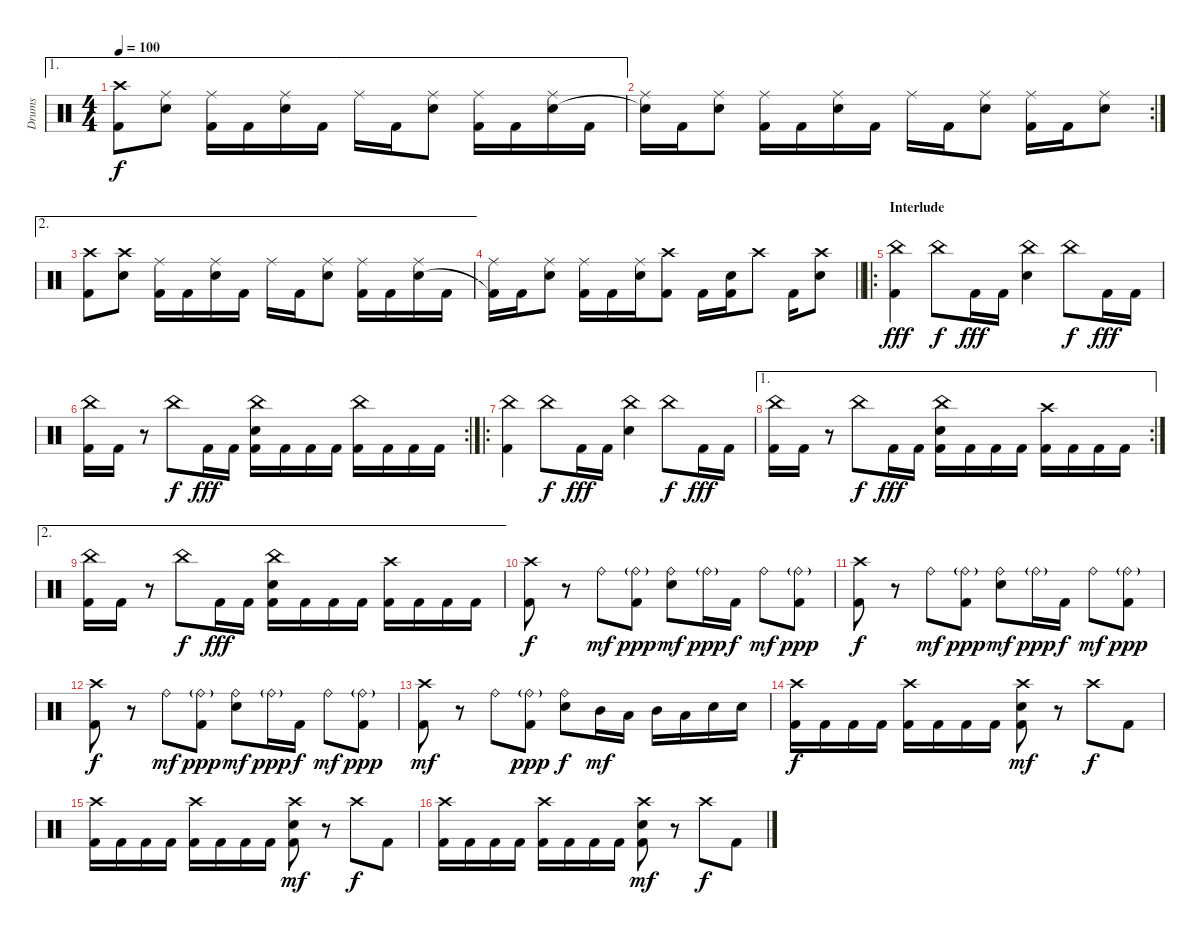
\track ("Drums" "Drums") {instrument percussion}
\staff {score}
\articulation defaults
\ae 1
\ts (4 4)
\tempo 100
\clef neutral
\ks c
("Crash high (hit)" "Kick (hit) 2").8{dy f} ("Ride (middle)" "Snare (hit) 2").8 ("Ride (middle)" "Kick (hit) 2").16 "Kick (hit) 2".16 ("Ride (middle)" "Snare (hit) 2").16 "Kick (hit) 2".16 "Ride (middle)".16 "Kick (hit) 2".16 ("Ride (middle)" "Snare (hit) 2").8 ("Ride (middle)" "Kick (hit) 2").16 "Kick (hit) 2".16 ("Ride (middle)" "Snare (hit) 2").16 "Kick (hit) 2".16 |
\rc 2
("Ride (middle)" "Snare (hit)"{t}).16 "Kick (hit) 2".16 ("Ride (middle)" "Snare (hit) 2").8 ("Ride (middle)" "Kick (hit) 2").16 "Kick (hit) 2".16 ("Ride (middle)" "Snare (hit) 2").16 "Kick (hit) 2".16 "Ride (middle)".16 "Kick (hit) 2".16 ("Ride (middle)" "Snare (hit) 2").8 ("Ride (middle)" "Kick (hit) 2").16 "Kick (hit) 2".16 ("Ride (middle)" "Snare (hit) 2").8 |
\ae 2
("Crash high (hit)" "Kick (hit) 2").8 ("Crash high (hit)" "Snare (hit) 2").8 ("Ride (middle)" "Kick (hit) 2").16 "Kick (hit) 2".16 ("Ride (middle)" "Snare (hit) 2").16 "Kick (hit) 2".16 "Ride (middle)".16 "Kick (hit) 2".16 ("Ride (middle)" "Snare (hit) 2").8 ("Ride (middle)" "Kick (hit) 2").16 "Kick (hit) 2".16 ("Ride (middle)" "Snare (hit) 2").16 "Kick (hit) 2".16 |
\barLineRight lightlight
("Ride (middle)" "Kick (hit) 2"{t}).16 "Kick (hit) 2".16 ("Ride (middle)" "Snare (hit) 2").8 ("Ride (middle)" "Kick (hit) 2").16 "Kick (hit) 2".16 ("Ride (middle)" "Snare (hit) 2").16 ("Crash high (hit)" "Kick (hit) 2").8 "Kick (hit) 2".16 ("Snare (hit) 2" "Kick (hit) 2").16 "Crash high (hit)".8 "Kick (hit) 2".16 ("Crash high (hit)" "Snare (hit) 2").8 |
\ro
\section ("" "Interlude")
("China (hit)" "Kick (hit) 2").4{dy fff} "China (hit)".8{dy f} "Kick (hit) 2".16{dy fff} "Kick (hit) 2".16 ("China (hit)" "Snare (hit) 2").4 "China (hit)".8{dy f} "Kick (hit) 2".16{dy fff} "Kick (hit) 2".16 |
\rc 2
("China (hit)" "Kick (hit) 2").16 "Kick (hit) 2".16 r.8 "China (hit)".8{dy f} "Kick (hit) 2".16{dy fff} "Kick (hit) 2".16 ("China (hit)" "Snare (hit) 2" "Kick (hit) 2").16 "Kick (hit) 2".16 "Kick (hit) 2".16 "Kick (hit) 2".16 ("China (hit)" "Kick (hit) 2").16 "Kick (hit) 2".16 "Kick (hit) 2".16 "Kick (hit) 2".16 |
\ro
("China (hit)" "Kick (hit) 2").4 "China (hit)".8{dy f} "Kick (hit) 2".16{dy fff} "Kick (hit) 2".16 ("China (hit)" "Snare (hit) 2").4 "China (hit)".8{dy f} "Kick (hit) 2".16{dy fff} "Kick (hit) 2".16 |
\ae 1
\rc 2
("China (hit)" "Kick (hit) 2").16 "Kick (hit) 2".16 r.8 "China (hit)".8{dy f} "Kick (hit) 2".16{dy fff} "Kick (hit) 2".16 ("China (hit)" "Snare (hit) 2" "Kick (hit) 2").16 "Kick (hit) 2".16 "Kick (hit) 2".16 "Kick (hit) 2".16 ("Crash high (hit)" "Kick (hit) 2").16 "Kick (hit) 2".16 "Kick (hit) 2".16 "Kick (hit) 2".16 |
\ae 2
("China (hit)" "Kick (hit) 2").16 "Kick (hit) 2".16 r.8 "China (hit)".8{dy f} "Kick (hit) 2".16{dy fff} "Kick (hit) 2".16 ("China (hit)" "Snare (hit) 2" "Kick (hit) 2").16 "Kick (hit) 2".16 "Kick (hit) 2".16 "Kick (hit) 2".16 ("Crash high (hit)" "Kick (hit) 2").16 "Kick (hit) 2".16 "Kick (hit) 2".16 "Kick (hit) 2".16 |
("Crash high (hit)" "Kick (hit) 2").8{dy f} r.8 "Ride (bell)".8{dy mf} ("Ride (bell)"{g} "Kick (hit) 2").8{dy ppp} ("Ride (bell)" "Snare (hit) 2").8{dy mf} "Ride (bell)"{g}.16{dy ppp} "Kick (hit) 2".16{dy f} "Ride (bell)".8{dy mf} ("Ride (bell)"{g} "Kick (hit) 2").8{dy ppp} |
("Crash high (hit)" "Kick (hit) 2").8{dy f} r.8 "Ride (bell)".8{dy mf} ("Ride (bell)"{g} "Kick (hit) 2").8{dy ppp} ("Ride (bell)" "Snare (hit) 2").8{dy mf} "Ride (bell)"{g}.16{dy ppp} "Kick (hit) 2".16{dy f} "Ride (bell)".8{dy mf} ("Ride (bell)"{g} "Kick (hit) 2").8{dy ppp} |
("Crash high (hit)" "Kick (hit) 2").8{dy f} r.8 "Ride (bell)".8{dy mf} ("Ride (bell)"{g} "Kick (hit) 2").8{dy ppp} ("Ride (bell)" "Snare (hit) 2").8{dy mf} "Ride (bell)"{g}.16{dy ppp} "Kick (hit) 2".16{dy f} "Ride (bell)".8{dy mf} ("Ride (bell)"{g} "Kick (hit) 2").8{dy ppp} |
("Crash high (hit)" "Kick (hit) 2").8{dy mf} r.8 "Ride (bell)".8 ("Ride (bell)"{g} "Kick (hit) 2").8{dy ppp} ("Ride (bell)" "Snare (hit) 2").8{dy f} "Mid Tom (hit)".16{dy mf} "Low Tom (hit)".16 "Mid Tom (hit)".16 "Low Tom (hit)".16 "Snare (hit) 2".16 "Snare (hit) 2".16 |
("Crash high (hit)" "Kick (hit) 2").16{dy f} "Kick (hit) 2".16 "Kick (hit) 2".16 "Kick (hit) 2".16 ("Crash high (hit)" "Kick (hit) 2").16 "Kick (hit) 2".16 "Kick (hit) 2".16 "Kick (hit) 2".16 ("Crash high (hit)" "Snare (hit) 2" "Kick (hit) 2").8{dy mf} r.8 "Crash high (hit)".8{dy f} "Kick (hit) 2".8 |
("Crash high (hit)" "Kick (hit) 2").16 "Kick (hit) 2".16 "Kick (hit) 2".16 "Kick (hit) 2".16 ("Crash high (hit)" "Kick (hit) 2").16 "Kick (hit) 2".16 "Kick (hit) 2".16 "Kick (hit) 2".16 ("Crash high (hit)" "Snare (hit) 2" "Kick (hit) 2").8{dy mf} r.8 "Crash high (hit)".8{dy f} "Kick (hit) 2".8 |
("Crash high (hit)" "Kick (hit) 2").16 "Kick (hit) 2".16 "Kick (hit) 2".16 "Kick (hit) 2".16 ("Crash high (hit)" "Kick (hit) 2").16 "Kick (hit) 2".16 "Kick (hit) 2".16 "Kick (hit) 2".16 ("Crash high (hit)" "Snare (hit) 2" "Kick (hit) 2").8{dy mf} r.8 "Crash high (hit)".8{dy f} "Kick (hit) 2".8
